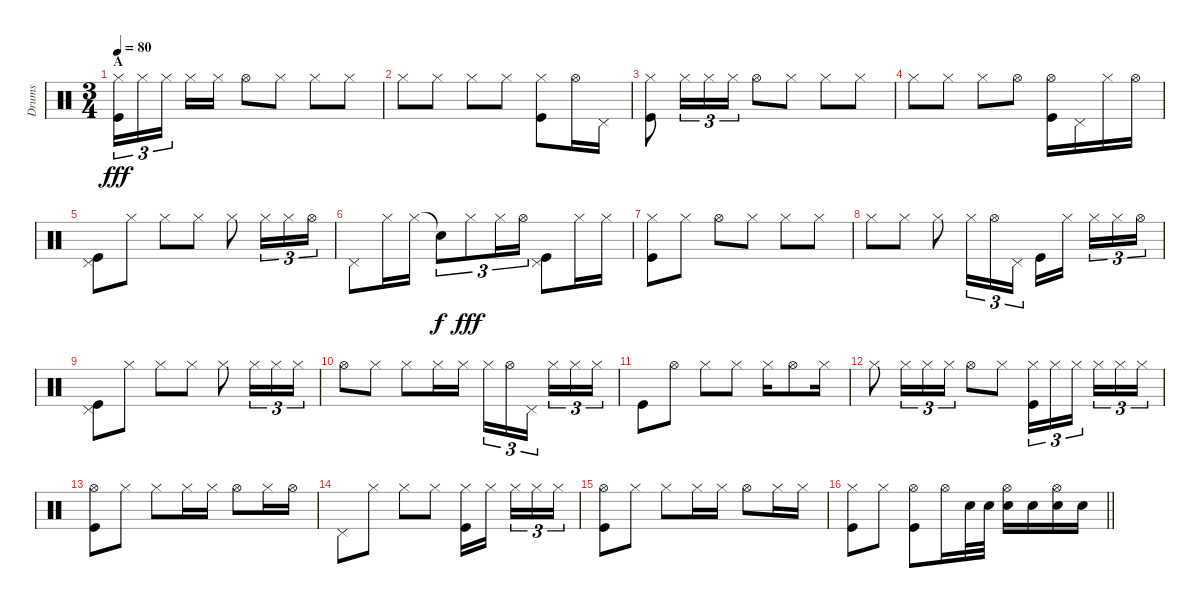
\track ("Drums" "Drums") {instrument percussion}
\staff {score}
\articulation defaults
\ts (3 4)
\section ("" "A")
\tempo 80
\clef neutral
\ks c
("Hi-Hat (closed)" "Kick (hit)").16{tu (3 2) dy fff} "Hi-Hat (closed)".16{tu (3 2)} "Hi-Hat (closed)".16{tu (3 2)} "Hi-Hat (closed)".16 "Hi-Hat (closed)".16 "Hi-Hat (open)".8 "Hi-Hat (closed)".8 "Hi-Hat (closed)".8 "Hi-Hat (closed)".8 |
"Hi-Hat (closed)".8 "Hi-Hat (closed)".8 "Hi-Hat (closed)".8 "Hi-Hat (closed)".8 ("Hi-Hat (closed)" "Kick (hit)").8 "Hi-Hat (open)".16 "Pedal Hi-Hat (hit)".16 |
("Hi-Hat (closed)" "Kick (hit)").8 "Hi-Hat (closed)".16{tu (3 2)} "Hi-Hat (closed)".16{tu (3 2)} "Hi-Hat (closed)".16{tu (3 2)} "Hi-Hat (open)".8 "Hi-Hat (closed)".8 "Hi-Hat (closed)".8 "Hi-Hat (closed)".8 |
"Hi-Hat (closed)".8 "Hi-Hat (closed)".8 "Hi-Hat (closed)".8 "Hi-Hat (open)".8 ("Hi-Hat (open)" "Kick (hit)").16 "Pedal Hi-Hat (hit)".16 "Hi-Hat (closed)".16 "Hi-Hat (open)".16 |
("Pedal Hi-Hat (hit)" "Kick (hit)").8 "Hi-Hat (closed)".8 "Hi-Hat (closed)".8 "Hi-Hat (closed)".8 "Hi-Hat (closed)".8 "Hi-Hat (closed)".16{tu (3 2)} "Hi-Hat (closed)".16{tu (3 2)} "Hi-Hat (open)".16{tu (3 2)} |
"Pedal Hi-Hat (hit)".8 "Hi-Hat (closed)".16 "Hi-Hat (closed)".16 "Snare (hit)"{t}.8{tu (3 2) dy f} "Hi-Hat (closed)".8{tu (3 2) dy fff} "Hi-Hat (closed)".16{tu (3 2)} "Hi-Hat (open)".16{tu (3 2)} ("Pedal Hi-Hat (hit)" "Kick (hit)").8 "Hi-Hat (closed)".16 "Hi-Hat (closed)".16 |
("Hi-Hat (closed)" "Kick (hit)").8 "Hi-Hat (closed)".8 "Hi-Hat (open)".8 "Hi-Hat (closed)".8 "Hi-Hat (closed)".8 "Hi-Hat (closed)".8 |
"Hi-Hat (closed)".8 "Hi-Hat (closed)".8 "Hi-Hat (closed)".8 "Hi-Hat (closed)".16{tu (3 2)} "Hi-Hat (open)".16{tu (3 2)} "Pedal Hi-Hat (hit)".16{tu (3 2)} "Kick (hit)".16 "Hi-Hat (closed)".16 "Hi-Hat (closed)".16{tu (3 2)} "Hi-Hat (closed)".16{tu (3 2)} "Hi-Hat (open)".16{tu (3 2)} |
("Pedal Hi-Hat (hit)" "Kick (hit)").8 "Hi-Hat (closed)".8 "Hi-Hat (closed)".8 "Hi-Hat (closed)".8 "Hi-Hat (closed)".8 "Hi-Hat (closed)".16{tu (3 2)} "Hi-Hat (closed)".16{tu (3 2)} "Hi-Hat (closed)".16{tu (3 2)} |
"Hi-Hat (open)".8 "Hi-Hat (closed)".8 "Hi-Hat (closed)".8 "Hi-Hat (closed)".16 "Hi-Hat (closed)".16 "Hi-Hat (closed)".16{tu (3 2)} "Hi-Hat (open)".16{tu (3 2)} "Pedal Hi-Hat (hit)".16{tu (3 2)} "Hi-Hat (closed)".16{tu (3 2)} "Hi-Hat (closed)".16{tu (3 2)} "Hi-Hat (closed)".16{tu (3 2)} |
"Kick (hit)".8 "Hi-Hat (open)".8 "Hi-Hat (closed)".8 "Hi-Hat (closed)".8 "Hi-Hat (closed)".16 "Hi-Hat (open)".8 "Hi-Hat (closed)".16 |
"Hi-Hat (closed)".8 "Hi-Hat (closed)".16{tu (3 2)} "Hi-Hat (closed)".16{tu (3 2)} "Hi-Hat (closed)".16{tu (3 2)} "Hi-Hat (open)".8 "Hi-Hat (closed)".8 ("Hi-Hat (closed)" "Kick (hit)").16{tu (3 2)} "Hi-Hat (closed)".16{tu (3 2)} "Hi-Hat (closed)".16{tu (3 2)} "Hi-Hat (closed)".16{tu (3 2)} "Hi-Hat (closed)".16{tu (3 2)} "Hi-Hat (closed)".16{tu (3 2)} |
("Hi-Hat (open)" "Kick (hit)").8 "Hi-Hat (closed)".8 "Hi-Hat (closed)".8 "Hi-Hat (closed)".16 "Hi-Hat (closed)".16 "Hi-Hat (open)".8 "Hi-Hat (closed)".16 "Hi-Hat (open)".16 |
"Pedal Hi-Hat (hit)".8 "Hi-Hat (closed)".8 "Hi-Hat (closed)".8 "Hi-Hat (closed)".8 ("Hi-Hat (closed)" "Kick (hit)").16 "Hi-Hat (closed)".16 "Hi-Hat (closed)".16{tu (3 2)} "Hi-Hat (closed)".16{tu (3 2)} "Hi-Hat (closed)".16{tu (3 2)} |
("Hi-Hat (open)" "Kick (hit)").8 "Hi-Hat (closed)".8 "Hi-Hat (closed)".8 "Hi-Hat (closed)".16 "Hi-Hat (closed)".16 "Hi-Hat (open)".8 "Hi-Hat (closed)".16 "Hi-Hat (closed)".16 |
\barLineRight lightlight
("Hi-Hat (closed)" "Kick (hit)").8 "Hi-Hat (closed)".8 ("Hi-Hat (open)" "Kick (hit)").8 "Hi-Hat (open)".16 "Snare (hit) 2".32 "Snare (hit) 2".32 ("Hi-Hat (open)" "Snare (hit) 2").16 "Snare (hit) 2".16 ("Hi-Hat (open)" "Snare (hit) 2").16 "Snare (hit) 2".16
